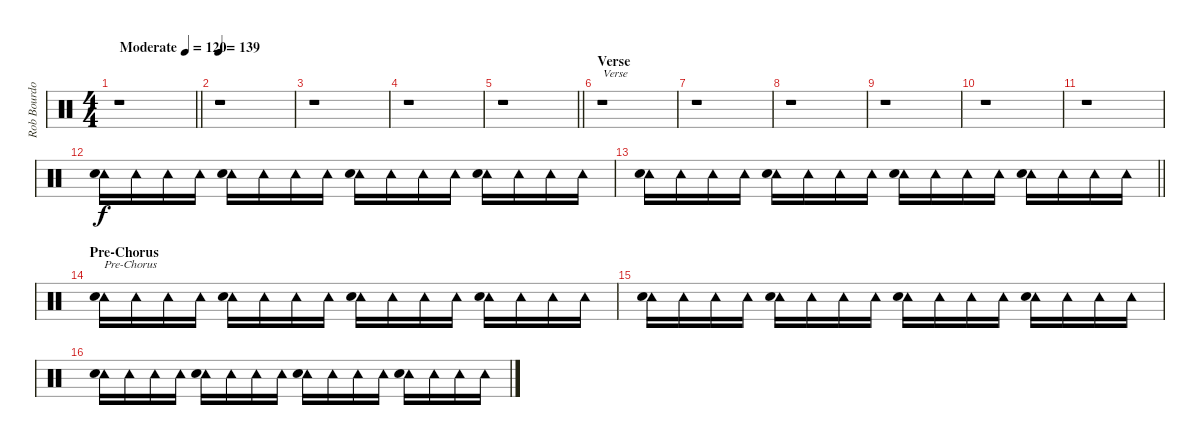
\track ("Rob Bourdon [Drums] / Clap from Audience" "Rob Bourdo") {instrument percussion}
\staff {score}
\articulation defaults
\ts (4 4)
\tempo (120 "Moderate")
\clef neutral
\barLineRight lightlight
\ks c
r.1{dy f} |
\tempo 139
r.1 |
r.1 |
r.1 |
\barLineRight lightlight
r.1 |
\section ("" "Verse")
r.1{txt "Verse"} |
r.1 |
r.1 |
r.1 |
r.1 |
r.1 |
("Tambourine (hit)" "Hand Clap (hit)").16 "Tambourine (hit)".16 "Tambourine (hit)".16 "Tambourine (hit)".16 ("Tambourine (hit)" "Hand Clap (hit)").16 "Tambourine (hit)".16 "Tambourine (hit)".16 "Tambourine (hit)".16 ("Tambourine (hit)" "Hand Clap (hit)").16 "Tambourine (hit)".16 "Tambourine (hit)".16 "Tambourine (hit)".16 ("Tambourine (hit)" "Hand Clap (hit)").16 "Tambourine (hit)".16 "Tambourine (hit)".16 "Tambourine (hit)".16 |
\barLineRight lightlight
("Tambourine (hit)" "Hand Clap (hit)").16 "Tambourine (hit)".16 "Tambourine (hit)".16 "Tambourine (hit)".16 ("Tambourine (hit)" "Hand Clap (hit)").16 "Tambourine (hit)".16 "Tambourine (hit)".16 "Tambourine (hit)".16 ("Tambourine (hit)" "Hand Clap (hit)").16 "Tambourine (hit)".16 "Tambourine (hit)".16 "Tambourine (hit)".16 ("Tambourine (hit)" "Hand Clap (hit)").16 "Tambourine (hit)".16 "Tambourine (hit)".16 "Tambourine (hit)".16 |
\section ("" "Pre-Chorus")
("Tambourine (hit)" "Hand Clap (hit)").16{txt "Pre-Chorus"} "Tambourine (hit)".16 "Tambourine (hit)".16 "Tambourine (hit)".16 ("Tambourine (hit)" "Hand Clap (hit)").16 "Tambourine (hit)".16 "Tambourine (hit)".16 "Tambourine (hit)".16 ("Tambourine (hit)" "Hand Clap (hit)").16 "Tambourine (hit)".16 "Tambourine (hit)".16 "Tambourine (hit)".16 ("Tambourine (hit)" "Hand Clap (hit)").16 "Tambourine (hit)".16 "Tambourine (hit)".16 "Tambourine (hit)".16 |
("Tambourine (hit)" "Hand Clap (hit)").16 "Tambourine (hit)".16 "Tambourine (hit)".16 "Tambourine (hit)".16 ("Tambourine (hit)" "Hand Clap (hit)").16 "Tambourine (hit)".16 "Tambourine (hit)".16 "Tambourine (hit)".16 ("Tambourine (hit)" "Hand Clap (hit)").16 "Tambourine (hit)".16 "Tambourine (hit)".16 "Tambourine (hit)".16 ("Tambourine (hit)" "Hand Clap (hit)").16 "Tambourine (hit)".16 "Tambourine (hit)".16 "Tambourine (hit)".16 |
("Tambourine (hit)" "Hand Clap (hit)").16 "Tambourine (hit)".16 "Tambourine (hit)".16 "Tambourine (hit)".16 ("Tambourine (hit)" "Hand Clap (hit)").16 "Tambourine (hit)".16 "Tambourine (hit)".16 "Tambourine (hit)".16 ("Tambourine (hit)" "Hand Clap (hit)").16 "Tambourine (hit)".16 "Tambourine (hit)".16 "Tambourine (hit)".16 ("Tambourine (hit)" "Hand Clap (hit)").16 "Tambourine (hit)".16 "Tambourine (hit)".16 "Tambourine (hit)".16
